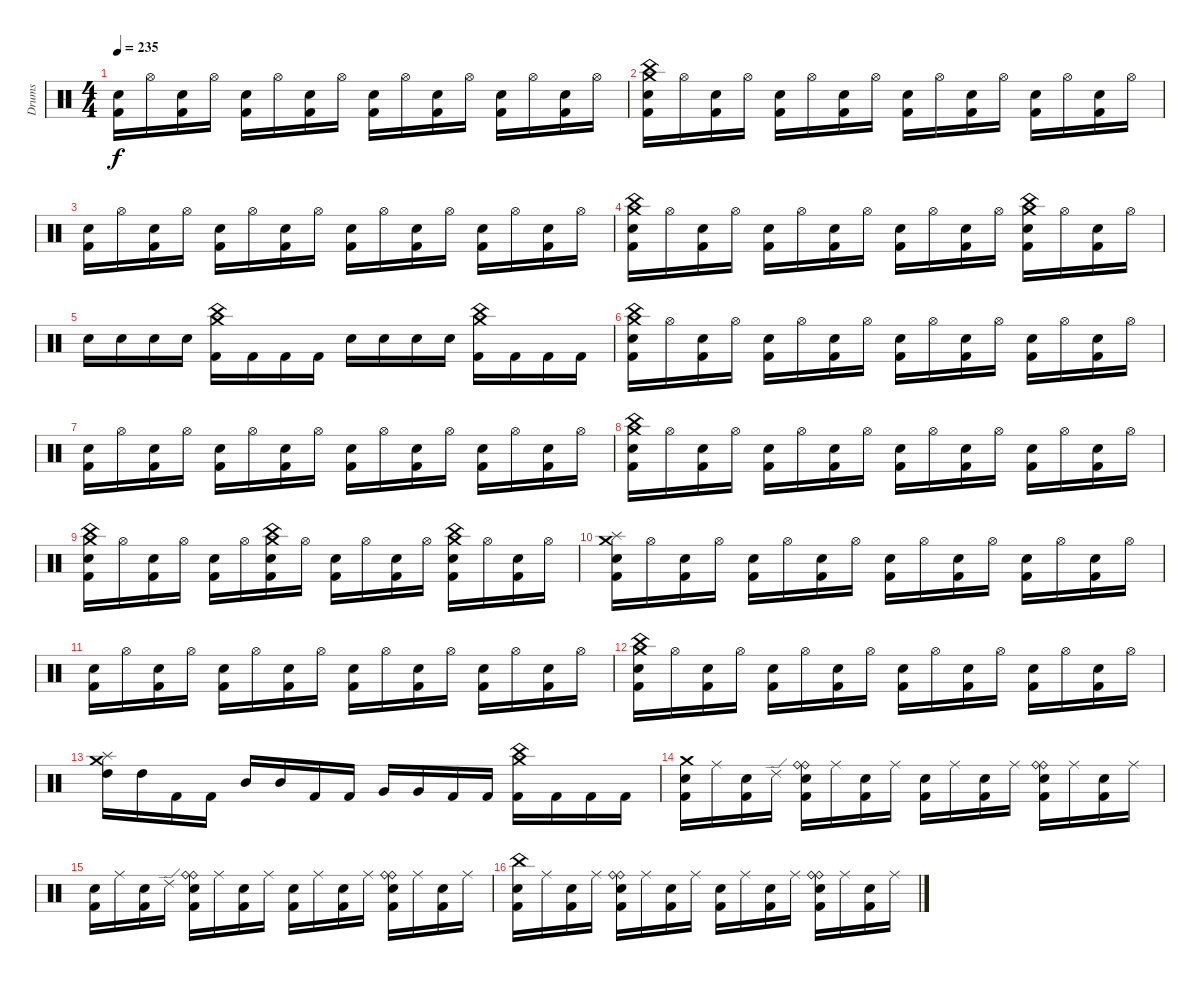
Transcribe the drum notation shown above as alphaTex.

\track ("Drums" "Drums") {instrument percussion}
\staff {score}
\articulation defaults
\ts (4 4)
\tempo 235
\clef neutral
\ks c
("Electric Snare (hit)" "Kick (hit) 2").16{dy f} "Hi-Hat (open)".16 ("Electric Snare (hit)" "Kick (hit) 2").16 "Hi-Hat (open)".16 ("Electric Snare (hit)" "Kick (hit) 2").16 "Hi-Hat (open)".16 ("Electric Snare (hit)" "Kick (hit) 2").16 "Hi-Hat (open)".16 ("Electric Snare (hit)" "Kick (hit) 2").16 "Hi-Hat (open)".16 ("Electric Snare (hit)" "Kick (hit) 2").16 "Hi-Hat (open)".16 ("Electric Snare (hit)" "Kick (hit) 2").16 "Hi-Hat (open)".16 ("Electric Snare (hit)" "Kick (hit) 2").16 "Hi-Hat (open)".16 |
("China (hit)" "Crash medium (hit)" "Electric Snare (hit)" "Kick (hit) 2").16 "Hi-Hat (open)".16 ("Electric Snare (hit)" "Kick (hit) 2").16 "Hi-Hat (open)".16 ("Electric Snare (hit)" "Kick (hit) 2").16 "Hi-Hat (open)".16 ("Electric Snare (hit)" "Kick (hit) 2").16 "Hi-Hat (open)".16 ("Electric Snare (hit)" "Kick (hit) 2").16 "Hi-Hat (open)".16 ("Electric Snare (hit)" "Kick (hit) 2").16 "Hi-Hat (open)".16 ("Electric Snare (hit)" "Kick (hit) 2").16 "Hi-Hat (open)".16 ("Electric Snare (hit)" "Kick (hit) 2").16 "Hi-Hat (open)".16 |
("Electric Snare (hit)" "Kick (hit) 2").16 "Hi-Hat (open)".16 ("Electric Snare (hit)" "Kick (hit) 2").16 "Hi-Hat (open)".16 ("Electric Snare (hit)" "Kick (hit) 2").16 "Hi-Hat (open)".16 ("Electric Snare (hit)" "Kick (hit) 2").16 "Hi-Hat (open)".16 ("Electric Snare (hit)" "Kick (hit) 2").16 "Hi-Hat (open)".16 ("Electric Snare (hit)" "Kick (hit) 2").16 "Hi-Hat (open)".16 ("Electric Snare (hit)" "Kick (hit) 2").16 "Hi-Hat (open)".16 ("Electric Snare (hit)" "Kick (hit) 2").16 "Hi-Hat (open)".16 |
("China (hit)" "Crash medium (hit)" "Electric Snare (hit)" "Kick (hit) 2").16 "Hi-Hat (open)".16 ("Electric Snare (hit)" "Kick (hit) 2").16 "Hi-Hat (open)".16 ("Electric Snare (hit)" "Kick (hit) 2").16 "Hi-Hat (open)".16 ("Electric Snare (hit)" "Kick (hit) 2").16 "Hi-Hat (open)".16 ("Electric Snare (hit)" "Kick (hit) 2").16 "Hi-Hat (open)".16 ("Electric Snare (hit)" "Kick (hit) 2").16 "Hi-Hat (open)".16 ("China (hit)" "Crash medium (hit)" "Electric Snare (hit)" "Kick (hit) 2").16 "Hi-Hat (open)".16 ("Electric Snare (hit)" "Kick (hit) 2").16 "Hi-Hat (open)".16 |
"Electric Snare (hit)".16 "Electric Snare (hit)".16 "Electric Snare (hit)".16 "Electric Snare (hit)".16 ("China (hit)" "Crash medium (hit)" "Kick (hit) 2").16 "Kick (hit) 2".16 "Kick (hit) 2".16 "Kick (hit) 2".16 "Electric Snare (hit)".16 "Electric Snare (hit)".16 "Electric Snare (hit)".16 "Electric Snare (hit)".16 ("China (hit)" "Crash medium (hit)" "Kick (hit) 2").16 "Kick (hit) 2".16 "Kick (hit) 2".16 "Kick (hit) 2".16 |
("China (hit)" "Crash medium (hit)" "Electric Snare (hit)" "Kick (hit) 2").16 "Hi-Hat (open)".16 ("Electric Snare (hit)" "Kick (hit) 2").16 "Hi-Hat (open)".16 ("Electric Snare (hit)" "Kick (hit) 2").16 "Hi-Hat (open)".16 ("Electric Snare (hit)" "Kick (hit) 2").16 "Hi-Hat (open)".16 ("Electric Snare (hit)" "Kick (hit) 2").16 "Hi-Hat (open)".16 ("Electric Snare (hit)" "Kick (hit) 2").16 "Hi-Hat (open)".16 ("Electric Snare (hit)" "Kick (hit) 2").16 "Hi-Hat (open)".16 ("Electric Snare (hit)" "Kick (hit) 2").16 "Hi-Hat (open)".16 |
("Electric Snare (hit)" "Kick (hit) 2").16 "Hi-Hat (open)".16 ("Electric Snare (hit)" "Kick (hit) 2").16 "Hi-Hat (open)".16 ("Electric Snare (hit)" "Kick (hit) 2").16 "Hi-Hat (open)".16 ("Electric Snare (hit)" "Kick (hit) 2").16 "Hi-Hat (open)".16 ("Electric Snare (hit)" "Kick (hit) 2").16 "Hi-Hat (open)".16 ("Electric Snare (hit)" "Kick (hit) 2").16 "Hi-Hat (open)".16 ("Electric Snare (hit)" "Kick (hit) 2").16 "Hi-Hat (open)".16 ("Electric Snare (hit)" "Kick (hit) 2").16 "Hi-Hat (open)".16 |
("China (hit)" "Crash medium (hit)" "Electric Snare (hit)" "Kick (hit) 2").16 "Hi-Hat (open)".16 ("Electric Snare (hit)" "Kick (hit) 2").16 "Hi-Hat (open)".16 ("Electric Snare (hit)" "Kick (hit) 2").16 "Hi-Hat (open)".16 ("Electric Snare (hit)" "Kick (hit) 2").16 "Hi-Hat (open)".16 ("Electric Snare (hit)" "Kick (hit) 2").16 "Hi-Hat (open)".16 ("Electric Snare (hit)" "Kick (hit) 2").16 "Hi-Hat (open)".16 ("Electric Snare (hit)" "Kick (hit) 2").16 "Hi-Hat (open)".16 ("Electric Snare (hit)" "Kick (hit) 2").16 "Hi-Hat (open)".16 |
("China (hit)" "Crash medium (hit)" "Electric Snare (hit)" "Kick (hit) 2").16 "Hi-Hat (open)".16 ("Electric Snare (hit)" "Kick (hit) 2").16 "Hi-Hat (open)".16 ("Electric Snare (hit)" "Kick (hit) 2").16 "Hi-Hat (open)".16 ("China (hit)" "Crash medium (hit)" "Electric Snare (hit)" "Kick (hit) 2").16 "Hi-Hat (open)".16 ("Electric Snare (hit)" "Kick (hit) 2").16 "Hi-Hat (open)".16 ("Electric Snare (hit)" "Kick (hit) 2").16 "Hi-Hat (open)".16 ("China (hit)" "Crash medium (hit)" "Electric Snare (hit)" "Kick (hit) 2").16 "Hi-Hat (open)".16 ("Electric Snare (hit)" "Kick (hit) 2").16 "Hi-Hat (open)".16 |
("Splash (hit)" "Crash medium (hit)" "Electric Snare (hit)" "Kick (hit) 2").16 "Hi-Hat (open)".16 ("Electric Snare (hit)" "Kick (hit) 2").16 "Hi-Hat (open)".16 ("Electric Snare (hit)" "Kick (hit) 2").16 "Hi-Hat (open)".16 ("Electric Snare (hit)" "Kick (hit) 2").16 "Hi-Hat (open)".16 ("Electric Snare (hit)" "Kick (hit) 2").16 "Hi-Hat (open)".16 ("Electric Snare (hit)" "Kick (hit) 2").16 "Hi-Hat (open)".16 ("Electric Snare (hit)" "Kick (hit) 2").16 "Hi-Hat (open)".16 ("Electric Snare (hit)" "Kick (hit) 2").16 "Hi-Hat (open)".16 |
("Electric Snare (hit)" "Kick (hit) 2").16 "Hi-Hat (open)".16 ("Electric Snare (hit)" "Kick (hit) 2").16 "Hi-Hat (open)".16 ("Electric Snare (hit)" "Kick (hit) 2").16 "Hi-Hat (open)".16 ("Electric Snare (hit)" "Kick (hit) 2").16 "Hi-Hat (open)".16 ("Electric Snare (hit)" "Kick (hit) 2").16 "Hi-Hat (open)".16 ("Electric Snare (hit)" "Kick (hit) 2").16 "Hi-Hat (open)".16 ("Electric Snare (hit)" "Kick (hit) 2").16 "Hi-Hat (open)".16 ("Electric Snare (hit)" "Kick (hit) 2").16 "Hi-Hat (open)".16 |
("China (hit)" "Crash medium (hit)" "Electric Snare (hit)" "Kick (hit) 2").16 "Hi-Hat (open)".16 ("Electric Snare (hit)" "Kick (hit) 2").16 "Hi-Hat (open)".16 ("Electric Snare (hit)" "Kick (hit) 2").16 "Hi-Hat (open)".16 ("Electric Snare (hit)" "Kick (hit) 2").16 "Hi-Hat (open)".16 ("Electric Snare (hit)" "Kick (hit) 2").16 "Hi-Hat (open)".16 ("Electric Snare (hit)" "Kick (hit) 2").16 "Hi-Hat (open)".16 ("Electric Snare (hit)" "Kick (hit) 2").16 "Hi-Hat (open)".16 ("Electric Snare (hit)" "Kick (hit) 2").16 "Hi-Hat (open)".16 |
("Splash (hit)" "Crash medium (hit)" "High Tom (hit)").16 "High Tom (hit)".16 "Kick (hit) 2".16 "Kick (hit) 2".16 "Mid Tom (hit)".16 "Mid Tom (hit)".16 "Kick (hit) 2".16 "Kick (hit) 2".16 "Very Low Tom (hit)".16 "Very Low Tom (hit)".16 "Kick (hit) 2".16 "Kick (hit) 2".16 ("Crash medium (hit)" "China (hit)" "Kick (hit) 2").16 "Kick (hit) 2".16 "Kick (hit) 2".16 "Kick (hit) 2".16 |
("Crash medium (hit)" "Electric Snare (hit)" "Kick (hit) 2").16 "Ride (middle)".16 ("Electric Snare (hit)" "Kick (hit) 2").16 "Ride (edge) 2".16 ("Ride (bell)" "Ride (bell)" "Electric Snare (hit)" "Kick (hit) 2").16 "Ride (middle)".16 ("Electric Snare (hit)" "Kick (hit) 2").16 "Ride (middle)".16 ("Electric Snare (hit)" "Kick (hit) 2").16 "Ride (middle)".16 ("Electric Snare (hit)" "Kick (hit) 2").16 "Ride (middle)".16 ("Ride (bell)" "Ride (bell)" "Electric Snare (hit)" "Kick (hit) 2").16 "Ride (middle)".16 ("Electric Snare (hit)" "Kick (hit) 2").16 "Ride (middle)".16 |
("Electric Snare (hit)" "Kick (hit) 2").16 "Ride (middle)".16 ("Electric Snare (hit)" "Kick (hit) 2").16 "Ride (edge) 2".16 ("Ride (bell)" "Ride (bell)" "Electric Snare (hit)" "Kick (hit) 2").16 "Ride (middle)".16 ("Electric Snare (hit)" "Kick (hit) 2").16 "Ride (middle)".16 ("Electric Snare (hit)" "Kick (hit) 2").16 "Ride (middle)".16 ("Electric Snare (hit)" "Kick (hit) 2").16 "Ride (middle)".16 ("Ride (bell)" "Ride (bell)" "Electric Snare (hit)" "Kick (hit) 2").16 "Ride (middle)".16 ("Electric Snare (hit)" "Kick (hit) 2").16 "Ride (middle)".16 |
("China (hit)" "Electric Snare (hit)" "Kick (hit) 2").16 "Ride (middle)".16 ("Electric Snare (hit)" "Kick (hit) 2").16 "Ride (middle)".16 ("Ride (bell)" "Ride (bell)" "Electric Snare (hit)" "Kick (hit) 2").16 "Ride (middle)".16 ("Electric Snare (hit)" "Kick (hit) 2").16 "Ride (middle)".16 ("Electric Snare (hit)" "Kick (hit) 2").16 "Ride (middle)".16 ("Electric Snare (hit)" "Kick (hit) 2").16 "Ride (middle)".16 ("Ride (bell)" "Ride (bell)" "Electric Snare (hit)" "Kick (hit) 2").16 "Ride (middle)".16 ("Electric Snare (hit)" "Kick (hit) 2").16 "Ride (middle)".16
